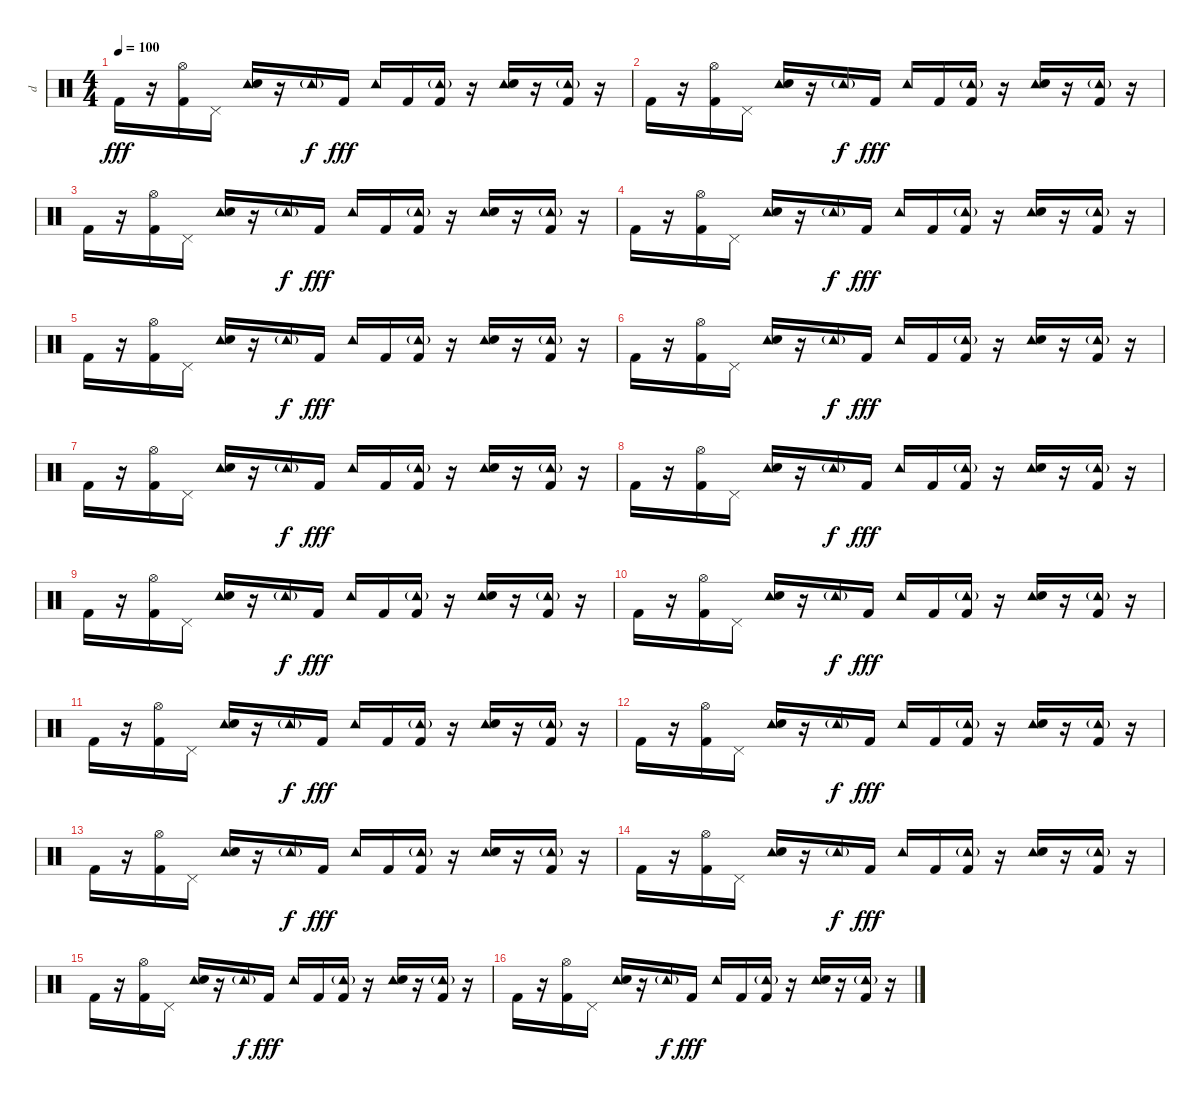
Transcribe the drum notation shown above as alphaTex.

\track ("d" "d") {instrument percussion}
\staff {score}
\articulation defaults
\ts (4 4)
\tempo 100
\clef neutral
\ks c "Kick (hit) 2".16{dy fff}
r.16 ("Hi-Hat (open)" "Kick (hit) 2").16 "Pedal Hi-Hat (hit)".16 ("Tambourine (hit)" "Snare (hit) 2").16 r.16 "Tambourine (hit)"{g}.16{dy f} "Kick (hit) 2".16{dy fff} "Tambourine (hit)".16 "Kick (hit) 2".16 ("Tambourine (hit)"{g} "Kick (hit) 2").16 r.16 ("Tambourine (hit)" "Snare (hit) 2").16 r.16 ("Tambourine (hit)"{g} "Kick (hit) 2").16 r.16 |
"Kick (hit) 2".16 r.16 ("Hi-Hat (open)" "Kick (hit) 2").16 "Pedal Hi-Hat (hit)".16 ("Tambourine (hit)" "Snare (hit) 2").16 r.16 "Tambourine (hit)"{g}.16{dy f} "Kick (hit) 2".16{dy fff} "Tambourine (hit)".16 "Kick (hit) 2".16 ("Tambourine (hit)"{g} "Kick (hit) 2").16 r.16 ("Tambourine (hit)" "Snare (hit) 2").16 r.16 ("Tambourine (hit)"{g} "Kick (hit) 2").16 r.16 |
"Kick (hit) 2".16 r.16 ("Hi-Hat (open)" "Kick (hit) 2").16 "Pedal Hi-Hat (hit)".16 ("Tambourine (hit)" "Snare (hit) 2").16 r.16 "Tambourine (hit)"{g}.16{dy f} "Kick (hit) 2".16{dy fff} "Tambourine (hit)".16 "Kick (hit) 2".16 ("Tambourine (hit)"{g} "Kick (hit) 2").16 r.16 ("Tambourine (hit)" "Snare (hit) 2").16 r.16 ("Tambourine (hit)"{g} "Kick (hit) 2").16 r.16 |
"Kick (hit) 2".16 r.16 ("Hi-Hat (open)" "Kick (hit) 2").16 "Pedal Hi-Hat (hit)".16 ("Tambourine (hit)" "Snare (hit) 2").16 r.16 "Tambourine (hit)"{g}.16{dy f} "Kick (hit) 2".16{dy fff} "Tambourine (hit)".16 "Kick (hit) 2".16 ("Tambourine (hit)"{g} "Kick (hit) 2").16 r.16 ("Tambourine (hit)" "Snare (hit) 2").16 r.16 ("Tambourine (hit)"{g} "Kick (hit) 2").16 r.16 |
"Kick (hit) 2".16 r.16 ("Hi-Hat (open)" "Kick (hit) 2").16 "Pedal Hi-Hat (hit)".16 ("Tambourine (hit)" "Snare (hit) 2").16 r.16 "Tambourine (hit)"{g}.16{dy f} "Kick (hit) 2".16{dy fff} "Tambourine (hit)".16 "Kick (hit) 2".16 ("Tambourine (hit)"{g} "Kick (hit) 2").16 r.16 ("Tambourine (hit)" "Snare (hit) 2").16 r.16 ("Tambourine (hit)"{g} "Kick (hit) 2").16 r.16 |
"Kick (hit) 2".16 r.16 ("Hi-Hat (open)" "Kick (hit) 2").16 "Pedal Hi-Hat (hit)".16 ("Tambourine (hit)" "Snare (hit) 2").16 r.16 "Tambourine (hit)"{g}.16{dy f} "Kick (hit) 2".16{dy fff} "Tambourine (hit)".16 "Kick (hit) 2".16 ("Tambourine (hit)"{g} "Kick (hit) 2").16 r.16 ("Tambourine (hit)" "Snare (hit) 2").16 r.16 ("Tambourine (hit)"{g} "Kick (hit) 2").16 r.16 |
"Kick (hit) 2".16 r.16 ("Hi-Hat (open)" "Kick (hit) 2").16 "Pedal Hi-Hat (hit)".16 ("Tambourine (hit)" "Snare (hit) 2").16 r.16 "Tambourine (hit)"{g}.16{dy f} "Kick (hit) 2".16{dy fff} "Tambourine (hit)".16 "Kick (hit) 2".16 ("Tambourine (hit)"{g} "Kick (hit) 2").16 r.16 ("Tambourine (hit)" "Snare (hit) 2").16 r.16 ("Tambourine (hit)"{g} "Kick (hit) 2").16 r.16 |
"Kick (hit) 2".16 r.16 ("Hi-Hat (open)" "Kick (hit) 2").16 "Pedal Hi-Hat (hit)".16 ("Tambourine (hit)" "Snare (hit) 2").16 r.16 "Tambourine (hit)"{g}.16{dy f} "Kick (hit) 2".16{dy fff} "Tambourine (hit)".16 "Kick (hit) 2".16 ("Tambourine (hit)"{g} "Kick (hit) 2").16 r.16 ("Tambourine (hit)" "Snare (hit) 2").16 r.16 ("Tambourine (hit)"{g} "Kick (hit) 2").16 r.16 |
"Kick (hit) 2".16 r.16 ("Hi-Hat (open)" "Kick (hit) 2").16 "Pedal Hi-Hat (hit)".16 ("Tambourine (hit)" "Snare (hit) 2").16 r.16 "Tambourine (hit)"{g}.16{dy f} "Kick (hit) 2".16{dy fff} "Tambourine (hit)".16 "Kick (hit) 2".16 ("Tambourine (hit)"{g} "Kick (hit) 2").16 r.16 ("Tambourine (hit)" "Snare (hit) 2").16 r.16 ("Tambourine (hit)"{g} "Kick (hit) 2").16 r.16 |
"Kick (hit) 2".16 r.16 ("Hi-Hat (open)" "Kick (hit) 2").16 "Pedal Hi-Hat (hit)".16 ("Tambourine (hit)" "Snare (hit) 2").16 r.16 "Tambourine (hit)"{g}.16{dy f} "Kick (hit) 2".16{dy fff} "Tambourine (hit)".16 "Kick (hit) 2".16 ("Tambourine (hit)"{g} "Kick (hit) 2").16 r.16 ("Tambourine (hit)" "Snare (hit) 2").16 r.16 ("Tambourine (hit)"{g} "Kick (hit) 2").16 r.16 |
"Kick (hit) 2".16 r.16 ("Hi-Hat (open)" "Kick (hit) 2").16 "Pedal Hi-Hat (hit)".16 ("Tambourine (hit)" "Snare (hit) 2").16 r.16 "Tambourine (hit)"{g}.16{dy f} "Kick (hit) 2".16{dy fff} "Tambourine (hit)".16 "Kick (hit) 2".16 ("Tambourine (hit)"{g} "Kick (hit) 2").16 r.16 ("Tambourine (hit)" "Snare (hit) 2").16 r.16 ("Tambourine (hit)"{g} "Kick (hit) 2").16 r.16 |
"Kick (hit) 2".16 r.16 ("Hi-Hat (open)" "Kick (hit) 2").16 "Pedal Hi-Hat (hit)".16 ("Tambourine (hit)" "Snare (hit) 2").16 r.16 "Tambourine (hit)"{g}.16{dy f} "Kick (hit) 2".16{dy fff} "Tambourine (hit)".16 "Kick (hit) 2".16 ("Tambourine (hit)"{g} "Kick (hit) 2").16 r.16 ("Tambourine (hit)" "Snare (hit) 2").16 r.16 ("Tambourine (hit)"{g} "Kick (hit) 2").16 r.16 |
"Kick (hit) 2".16 r.16 ("Hi-Hat (open)" "Kick (hit) 2").16 "Pedal Hi-Hat (hit)".16 ("Tambourine (hit)" "Snare (hit) 2").16 r.16 "Tambourine (hit)"{g}.16{dy f} "Kick (hit) 2".16{dy fff} "Tambourine (hit)".16 "Kick (hit) 2".16 ("Tambourine (hit)"{g} "Kick (hit) 2").16 r.16 ("Tambourine (hit)" "Snare (hit) 2").16 r.16 ("Tambourine (hit)"{g} "Kick (hit) 2").16 r.16 |
"Kick (hit) 2".16 r.16 ("Hi-Hat (open)" "Kick (hit) 2").16 "Pedal Hi-Hat (hit)".16 ("Tambourine (hit)" "Snare (hit) 2").16 r.16 "Tambourine (hit)"{g}.16{dy f} "Kick (hit) 2".16{dy fff} "Tambourine (hit)".16 "Kick (hit) 2".16 ("Tambourine (hit)"{g} "Kick (hit) 2").16 r.16 ("Tambourine (hit)" "Snare (hit) 2").16 r.16 ("Tambourine (hit)"{g} "Kick (hit) 2").16 r.16 |
"Kick (hit) 2".16 r.16 ("Hi-Hat (open)" "Kick (hit) 2").16 "Pedal Hi-Hat (hit)".16 ("Tambourine (hit)" "Snare (hit) 2").16 r.16 "Tambourine (hit)"{g}.16{dy f} "Kick (hit) 2".16{dy fff} "Tambourine (hit)".16 "Kick (hit) 2".16 ("Tambourine (hit)"{g} "Kick (hit) 2").16 r.16 ("Tambourine (hit)" "Snare (hit) 2").16 r.16 ("Tambourine (hit)"{g} "Kick (hit) 2").16 r.16 |
"Kick (hit) 2".16 r.16 ("Hi-Hat (open)" "Kick (hit) 2").16 "Pedal Hi-Hat (hit)".16 ("Tambourine (hit)" "Snare (hit) 2").16 r.16 "Tambourine (hit)"{g}.16{dy f} "Kick (hit) 2".16{dy fff} "Tambourine (hit)".16 "Kick (hit) 2".16 ("Tambourine (hit)"{g} "Kick (hit) 2").16 r.16 ("Tambourine (hit)" "Snare (hit) 2").16 r.16 ("Tambourine (hit)"{g} "Kick (hit) 2").16 r.16
